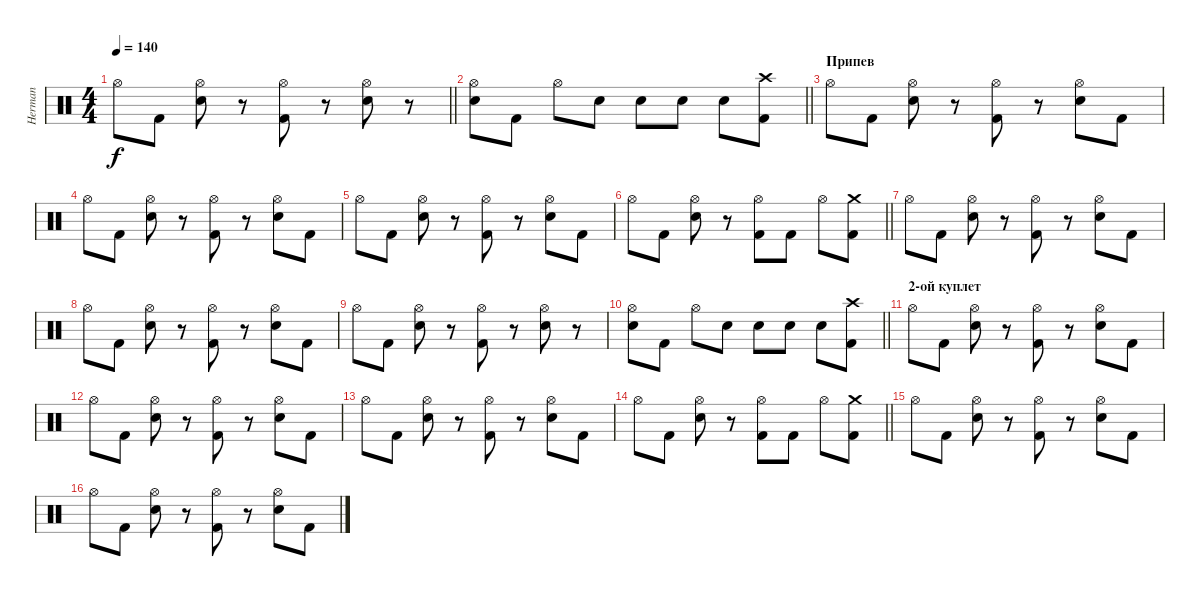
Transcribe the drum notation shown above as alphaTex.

\track ("Herman" "Herman") {instrument percussion}
\staff {score}
\articulation defaults
\ts (4 4)
\tempo 140
\clef neutral
\barLineRight lightlight
\ks c "Hi-Hat (open)".8{dy f} "Kick (hit) 2".8
("Hi-Hat (open)" "Electric Snare (hit)").8 r.8 ("Hi-Hat (open)" "Kick (hit) 2").8 r.8 ("Hi-Hat (open)" "Electric Snare (hit)").8 r.8 |
\barLineRight lightlight
("Hi-Hat (open)" "Electric Snare (hit)").8 "Kick (hit) 2".8 "Hi-Hat (open)".8 "Electric Snare (hit)".8 "Electric Snare (hit)".8 "Electric Snare (hit)".8 "Electric Snare (hit)".8 ("Crash high (hit)" "Kick (hit) 2").8 |
\section ("" "Припев")
"Hi-Hat (open)".8 "Kick (hit) 2".8 ("Hi-Hat (open)" "Electric Snare (hit)").8 r.8 ("Hi-Hat (open)" "Kick (hit) 2").8 r.8 ("Hi-Hat (open)" "Electric Snare (hit)").8 "Kick (hit) 2".8 |
"Hi-Hat (open)".8 "Kick (hit) 2".8 ("Hi-Hat (open)" "Electric Snare (hit)").8 r.8 ("Hi-Hat (open)" "Kick (hit) 2").8 r.8 ("Hi-Hat (open)" "Electric Snare (hit)").8 "Kick (hit) 2".8 |
"Hi-Hat (open)".8 "Kick (hit) 2".8 ("Hi-Hat (open)" "Electric Snare (hit)").8 r.8 ("Hi-Hat (open)" "Kick (hit) 2").8 r.8 ("Hi-Hat (open)" "Electric Snare (hit)").8 "Kick (hit) 2".8 |
\barLineRight lightlight "Hi-Hat (open)".8 "Kick (hit) 2".8
("Hi-Hat (open)" "Electric Snare (hit)").8 r.8 ("Hi-Hat (open)" "Kick (hit) 2").8 "Kick (hit) 2".8 "Hi-Hat (open)".8 ("Crash medium (hit)" "Kick (hit) 2").8 |
"Hi-Hat (open)".8 "Kick (hit) 2".8 ("Hi-Hat (open)" "Electric Snare (hit)").8 r.8 ("Hi-Hat (open)" "Kick (hit) 2").8 r.8 ("Hi-Hat (open)" "Electric Snare (hit)").8 "Kick (hit) 2".8 |
"Hi-Hat (open)".8 "Kick (hit) 2".8 ("Hi-Hat (open)" "Electric Snare (hit)").8 r.8 ("Hi-Hat (open)" "Kick (hit) 2").8 r.8 ("Hi-Hat (open)" "Electric Snare (hit)").8 "Kick (hit) 2".8 |
"Hi-Hat (open)".8 "Kick (hit) 2".8 ("Hi-Hat (open)" "Electric Snare (hit)").8 r.8 ("Hi-Hat (open)" "Kick (hit) 2").8 r.8 ("Hi-Hat (open)" "Electric Snare (hit)").8 r.8 |
\barLineRight lightlight
("Hi-Hat (open)" "Electric Snare (hit)").8 "Kick (hit) 2".8 "Hi-Hat (open)".8 "Electric Snare (hit)".8 "Electric Snare (hit)".8 "Electric Snare (hit)".8 "Electric Snare (hit)".8 ("Crash high (hit)" "Kick (hit) 2").8 |
\section ("" "2-ой куплет")
"Hi-Hat (open)".8 "Kick (hit) 2".8 ("Hi-Hat (open)" "Electric Snare (hit)").8 r.8 ("Hi-Hat (open)" "Kick (hit) 2").8 r.8 ("Hi-Hat (open)" "Electric Snare (hit)").8 "Kick (hit) 2".8 |
"Hi-Hat (open)".8 "Kick (hit) 2".8 ("Hi-Hat (open)" "Electric Snare (hit)").8 r.8 ("Hi-Hat (open)" "Kick (hit) 2").8 r.8 ("Hi-Hat (open)" "Electric Snare (hit)").8 "Kick (hit) 2".8 |
"Hi-Hat (open)".8 "Kick (hit) 2".8 ("Hi-Hat (open)" "Electric Snare (hit)").8 r.8 ("Hi-Hat (open)" "Kick (hit) 2").8 r.8 ("Hi-Hat (open)" "Electric Snare (hit)").8 "Kick (hit) 2".8 |
\barLineRight lightlight "Hi-Hat (open)".8 "Kick (hit) 2".8
("Hi-Hat (open)" "Electric Snare (hit)").8 r.8 ("Hi-Hat (open)" "Kick (hit) 2").8 "Kick (hit) 2".8 "Hi-Hat (open)".8 ("Crash medium (hit)" "Kick (hit) 2").8 |
"Hi-Hat (open)".8 "Kick (hit) 2".8 ("Hi-Hat (open)" "Electric Snare (hit)").8 r.8 ("Hi-Hat (open)" "Kick (hit) 2").8 r.8 ("Hi-Hat (open)" "Electric Snare (hit)").8 "Kick (hit) 2".8 |
"Hi-Hat (open)".8 "Kick (hit) 2".8 ("Hi-Hat (open)" "Electric Snare (hit)").8 r.8 ("Hi-Hat (open)" "Kick (hit) 2").8 r.8 ("Hi-Hat (open)" "Electric Snare (hit)").8 "Kick (hit) 2".8
